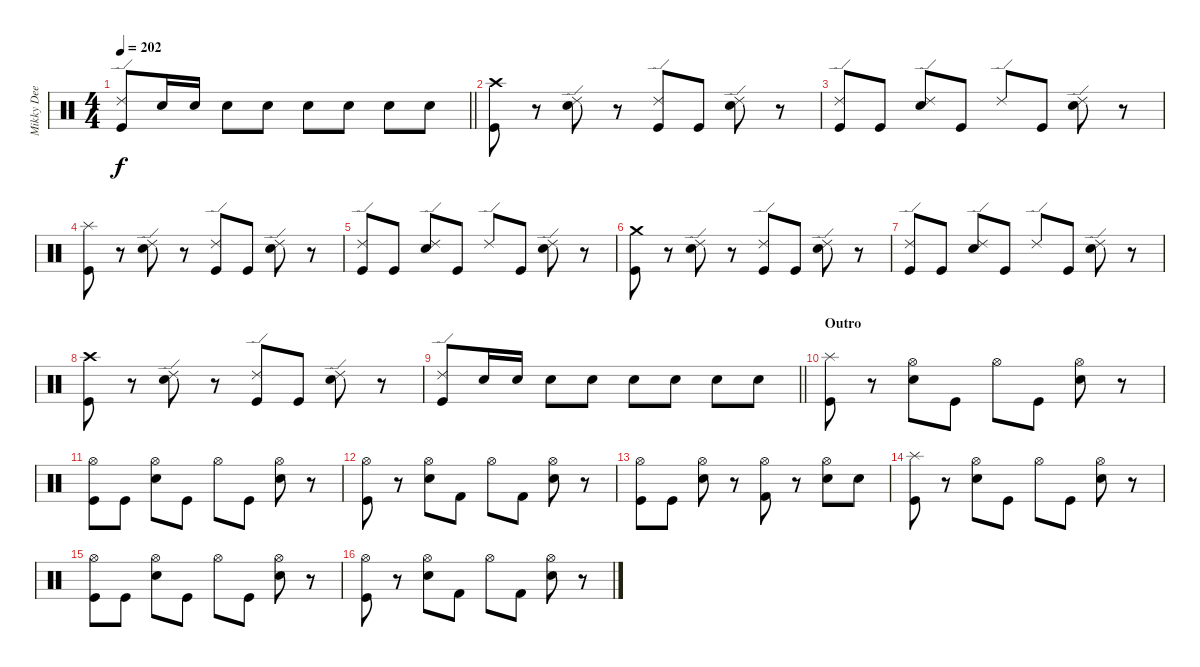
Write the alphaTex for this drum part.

\track ("Mikky Dee" "Mikky Dee") {instrument percussion}
\staff {score}
\articulation defaults
\ts (4 4)
\tempo 202
\clef neutral
\barLineRight lightlight
\ks c
("Ride (edge) 2" "Kick (hit)").8{dy f} "Electric Snare (hit)".16 "Electric Snare (hit)".16 "Electric Snare (hit)".8 "Electric Snare (hit)".8 "Electric Snare (hit)".8 "Electric Snare (hit)".8 "Electric Snare (hit)".8 "Electric Snare (hit)".8 |
("Crash high (hit)" "Kick (hit)").8 r.8 ("Ride (edge) 2" "Electric Snare (hit)").8 r.8 ("Ride (edge) 2" "Kick (hit)").8 "Kick (hit)".8 ("Ride (edge) 2" "Electric Snare (hit)").8 r.8 |
("Ride (edge) 2" "Kick (hit)").8 "Kick (hit)".8 ("Ride (edge) 2" "Electric Snare (hit)").8 "Kick (hit)".8 "Ride (edge) 2".8 "Kick (hit)".8 ("Ride (edge) 2" "Electric Snare (hit)").8 r.8 |
("Splash (hit)" "Kick (hit)").8 r.8 ("Ride (edge) 2" "Electric Snare (hit)").8 r.8 ("Ride (edge) 2" "Kick (hit)").8 "Kick (hit)".8 ("Ride (edge) 2" "Electric Snare (hit)").8 r.8 |
("Ride (edge) 2" "Kick (hit)").8 "Kick (hit)".8 ("Ride (edge) 2" "Electric Snare (hit)").8 "Kick (hit)".8 "Ride (edge) 2".8 "Kick (hit)".8 ("Ride (edge) 2" "Electric Snare (hit)").8 r.8 |
("Crash medium (hit)" "Kick (hit)").8 r.8 ("Ride (edge) 2" "Electric Snare (hit)").8 r.8 ("Ride (edge) 2" "Kick (hit)").8 "Kick (hit)".8 ("Ride (edge) 2" "Electric Snare (hit)").8 r.8 |
("Ride (edge) 2" "Kick (hit)").8 "Kick (hit)".8 ("Ride (edge) 2" "Electric Snare (hit)").8 "Kick (hit)".8 "Ride (edge) 2".8 "Kick (hit)".8 ("Ride (edge) 2" "Electric Snare (hit)").8 r.8 |
("Crash high (hit)" "Kick (hit)").8 r.8 ("Ride (edge) 2" "Electric Snare (hit)").8 r.8 ("Ride (edge) 2" "Kick (hit)").8 "Kick (hit)".8 ("Ride (edge) 2" "Electric Snare (hit)").8 r.8 |
\barLineRight lightlight
("Ride (edge) 2" "Kick (hit)").8 "Electric Snare (hit)".16 "Electric Snare (hit)".16 "Electric Snare (hit)".8 "Electric Snare (hit)".8 "Electric Snare (hit)".8 "Electric Snare (hit)".8 "Electric Snare (hit)".8 "Electric Snare (hit)".8 |
\section ("" "Outro")
("Splash (hit)" "Kick (hit)").8 r.8 ("Hi-Hat (open)" "Electric Snare (hit)").8 "Kick (hit)".8 "Hi-Hat (open)".8 "Kick (hit)".8 ("Hi-Hat (open)" "Electric Snare (hit)").8 r.8 |
("Hi-Hat (open)" "Kick (hit)").8 "Kick (hit)".8 ("Hi-Hat (open)" "Electric Snare (hit)").8 "Kick (hit)".8 "Hi-Hat (open)".8 "Kick (hit)".8 ("Hi-Hat (open)" "Electric Snare (hit)").8 r.8 |
("Hi-Hat (open)" "Kick (hit)").8 r.8 ("Hi-Hat (open)" "Electric Snare (hit)").8 "Kick (hit) 2".8 "Hi-Hat (open)".8 "Kick (hit) 2".8 ("Hi-Hat (open)" "Electric Snare (hit)").8 r.8 |
("Hi-Hat (open)" "Kick (hit)").8 "Kick (hit)".8 ("Hi-Hat (open)" "Electric Snare (hit)").8 r.8 ("Hi-Hat (open)" "Kick (hit) 2").8 r.8 ("Hi-Hat (open)" "Electric Snare (hit)").8 "Electric Snare (hit)".8 |
("Splash (hit)" "Kick (hit)").8 r.8 ("Hi-Hat (open)" "Electric Snare (hit)").8 "Kick (hit)".8 "Hi-Hat (open)".8 "Kick (hit)".8 ("Hi-Hat (open)" "Electric Snare (hit)").8 r.8 |
("Hi-Hat (open)" "Kick (hit)").8 "Kick (hit)".8 ("Hi-Hat (open)" "Electric Snare (hit)").8 "Kick (hit)".8 "Hi-Hat (open)".8 "Kick (hit)".8 ("Hi-Hat (open)" "Electric Snare (hit)").8 r.8 |
("Hi-Hat (open)" "Kick (hit)").8 r.8 ("Hi-Hat (open)" "Electric Snare (hit)").8 "Kick (hit) 2".8 "Hi-Hat (open)".8 "Kick (hit) 2".8 ("Hi-Hat (open)" "Electric Snare (hit)").8 r.8
